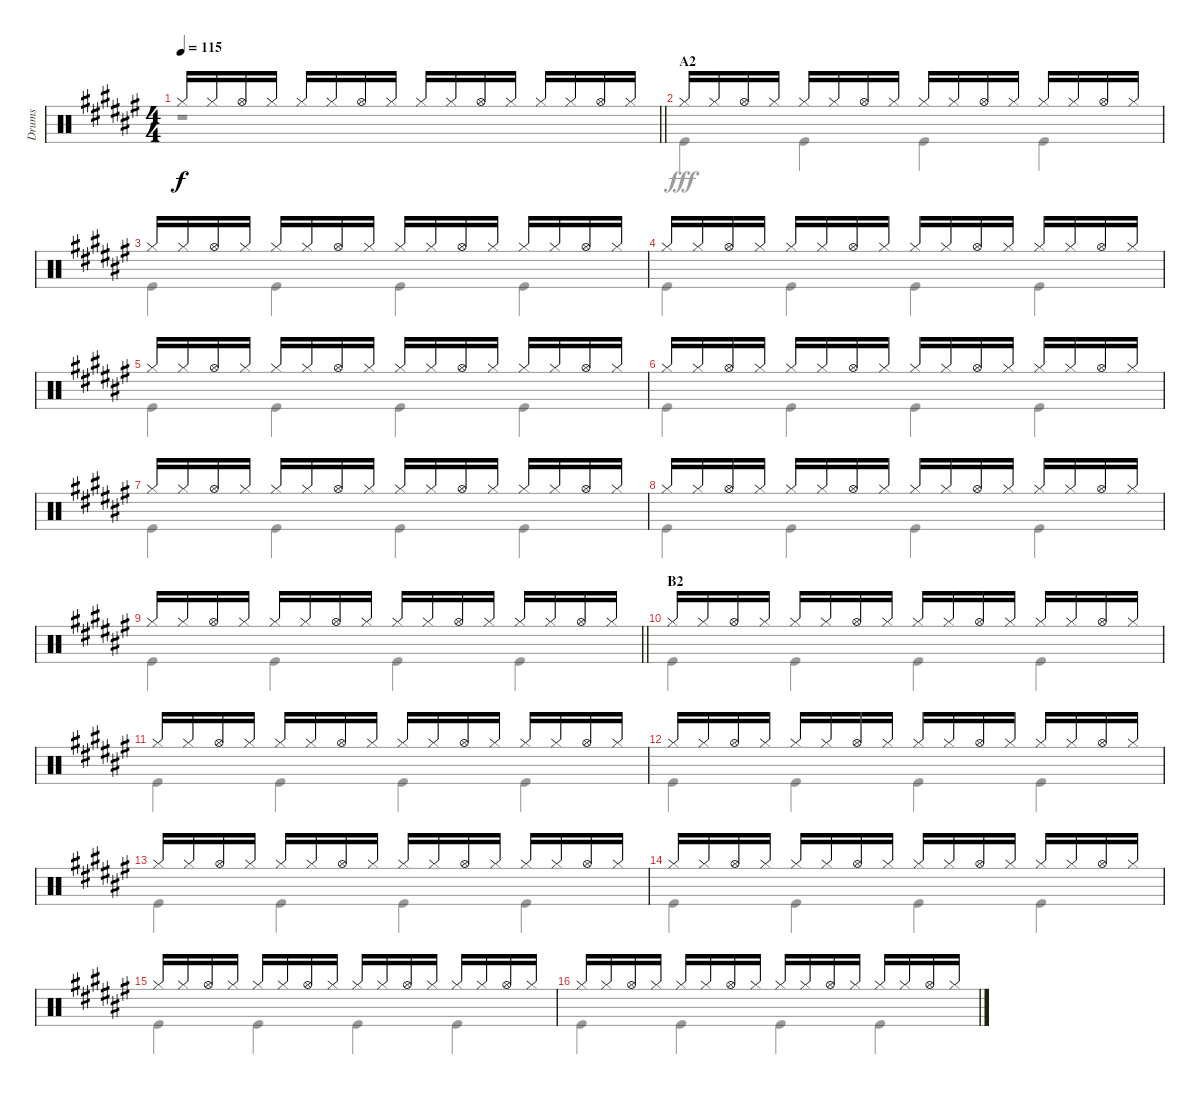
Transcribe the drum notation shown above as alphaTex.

\track ("Drums" "Drums") {instrument percussion}
\staff {score}
\articulation defaults
\voice
\ts (4 4)
\tempo 115
\clef neutral
\barLineRight lightlight
\ks f# "Hi-Hat (closed)".16{dy f} "Hi-Hat (closed)".16 "Hi-Hat (open)".16 "Hi-Hat (closed)".16 "Hi-Hat (closed)".16 "Hi-Hat (closed)".16 "Hi-Hat (open)".16 "Hi-Hat (closed)".16 "Hi-Hat (closed)".16 "Hi-Hat (closed)".16 "Hi-Hat (open)".16 "Hi-Hat (closed)".16 "Hi-Hat (closed)".16 "Hi-Hat (closed)".16 "Hi-Hat (open)".16 "Hi-Hat (closed)".16
|
\section ("" "A2")
"Hi-Hat (closed)".16 "Hi-Hat (closed)".16 "Hi-Hat (open)".16 "Hi-Hat (closed)".16 "Hi-Hat (closed)".16 "Hi-Hat (closed)".16 "Hi-Hat (open)".16 "Hi-Hat (closed)".16 "Hi-Hat (closed)".16 "Hi-Hat (closed)".16 "Hi-Hat (open)".16 "Hi-Hat (closed)".16 "Hi-Hat (closed)".16 "Hi-Hat (closed)".16 "Hi-Hat (open)".16 "Hi-Hat (closed)".16 |
"Hi-Hat (closed)".16 "Hi-Hat (closed)".16 "Hi-Hat (open)".16 "Hi-Hat (closed)".16 "Hi-Hat (closed)".16 "Hi-Hat (closed)".16 "Hi-Hat (open)".16 "Hi-Hat (closed)".16 "Hi-Hat (closed)".16 "Hi-Hat (closed)".16 "Hi-Hat (open)".16 "Hi-Hat (closed)".16 "Hi-Hat (closed)".16 "Hi-Hat (closed)".16 "Hi-Hat (open)".16 "Hi-Hat (closed)".16 |
"Hi-Hat (closed)".16 "Hi-Hat (closed)".16 "Hi-Hat (open)".16 "Hi-Hat (closed)".16 "Hi-Hat (closed)".16 "Hi-Hat (closed)".16 "Hi-Hat (open)".16 "Hi-Hat (closed)".16 "Hi-Hat (closed)".16 "Hi-Hat (closed)".16 "Hi-Hat (open)".16 "Hi-Hat (closed)".16 "Hi-Hat (closed)".16 "Hi-Hat (closed)".16 "Hi-Hat (open)".16 "Hi-Hat (closed)".16 |
"Hi-Hat (closed)".16 "Hi-Hat (closed)".16 "Hi-Hat (open)".16 "Hi-Hat (closed)".16 "Hi-Hat (closed)".16 "Hi-Hat (closed)".16 "Hi-Hat (open)".16 "Hi-Hat (closed)".16 "Hi-Hat (closed)".16 "Hi-Hat (closed)".16 "Hi-Hat (open)".16 "Hi-Hat (closed)".16 "Hi-Hat (closed)".16 "Hi-Hat (closed)".16 "Hi-Hat (open)".16 "Hi-Hat (closed)".16 |
"Hi-Hat (closed)".16 "Hi-Hat (closed)".16 "Hi-Hat (open)".16 "Hi-Hat (closed)".16 "Hi-Hat (closed)".16 "Hi-Hat (closed)".16 "Hi-Hat (open)".16 "Hi-Hat (closed)".16 "Hi-Hat (closed)".16 "Hi-Hat (closed)".16 "Hi-Hat (open)".16 "Hi-Hat (closed)".16 "Hi-Hat (closed)".16 "Hi-Hat (closed)".16 "Hi-Hat (open)".16 "Hi-Hat (closed)".16 |
"Hi-Hat (closed)".16 "Hi-Hat (closed)".16 "Hi-Hat (open)".16 "Hi-Hat (closed)".16 "Hi-Hat (closed)".16 "Hi-Hat (closed)".16 "Hi-Hat (open)".16 "Hi-Hat (closed)".16 "Hi-Hat (closed)".16 "Hi-Hat (closed)".16 "Hi-Hat (open)".16 "Hi-Hat (closed)".16 "Hi-Hat (closed)".16 "Hi-Hat (closed)".16 "Hi-Hat (open)".16 "Hi-Hat (closed)".16 |
"Hi-Hat (closed)".16 "Hi-Hat (closed)".16 "Hi-Hat (open)".16 "Hi-Hat (closed)".16 "Hi-Hat (closed)".16 "Hi-Hat (closed)".16 "Hi-Hat (open)".16 "Hi-Hat (closed)".16 "Hi-Hat (closed)".16 "Hi-Hat (closed)".16 "Hi-Hat (open)".16 "Hi-Hat (closed)".16 "Hi-Hat (closed)".16 "Hi-Hat (closed)".16 "Hi-Hat (open)".16 "Hi-Hat (closed)".16 |
\barLineRight lightlight "Hi-Hat (closed)".16 "Hi-Hat (closed)".16 "Hi-Hat (open)".16 "Hi-Hat (closed)".16 "Hi-Hat (closed)".16 "Hi-Hat (closed)".16 "Hi-Hat (open)".16 "Hi-Hat (closed)".16 "Hi-Hat (closed)".16 "Hi-Hat (closed)".16 "Hi-Hat (open)".16 "Hi-Hat (closed)".16 "Hi-Hat (closed)".16 "Hi-Hat (closed)".16 "Hi-Hat (open)".16 "Hi-Hat (closed)".16
|
\section ("" "B2")
"Hi-Hat (closed)".16 "Hi-Hat (closed)".16 "Hi-Hat (open)".16 "Hi-Hat (closed)".16 "Hi-Hat (closed)".16 "Hi-Hat (closed)".16 "Hi-Hat (open)".16 "Hi-Hat (closed)".16 "Hi-Hat (closed)".16 "Hi-Hat (closed)".16 "Hi-Hat (open)".16 "Hi-Hat (closed)".16 "Hi-Hat (closed)".16 "Hi-Hat (closed)".16 "Hi-Hat (open)".16 "Hi-Hat (closed)".16 |
"Hi-Hat (closed)".16 "Hi-Hat (closed)".16 "Hi-Hat (open)".16 "Hi-Hat (closed)".16 "Hi-Hat (closed)".16 "Hi-Hat (closed)".16 "Hi-Hat (open)".16 "Hi-Hat (closed)".16 "Hi-Hat (closed)".16 "Hi-Hat (closed)".16 "Hi-Hat (open)".16 "Hi-Hat (closed)".16 "Hi-Hat (closed)".16 "Hi-Hat (closed)".16 "Hi-Hat (open)".16 "Hi-Hat (closed)".16 |
"Hi-Hat (closed)".16 "Hi-Hat (closed)".16 "Hi-Hat (open)".16 "Hi-Hat (closed)".16 "Hi-Hat (closed)".16 "Hi-Hat (closed)".16 "Hi-Hat (open)".16 "Hi-Hat (closed)".16 "Hi-Hat (closed)".16 "Hi-Hat (closed)".16 "Hi-Hat (open)".16 "Hi-Hat (closed)".16 "Hi-Hat (closed)".16 "Hi-Hat (closed)".16 "Hi-Hat (open)".16 "Hi-Hat (closed)".16 |
"Hi-Hat (closed)".16 "Hi-Hat (closed)".16 "Hi-Hat (open)".16 "Hi-Hat (closed)".16 "Hi-Hat (closed)".16 "Hi-Hat (closed)".16 "Hi-Hat (open)".16 "Hi-Hat (closed)".16 "Hi-Hat (closed)".16 "Hi-Hat (closed)".16 "Hi-Hat (open)".16 "Hi-Hat (closed)".16 "Hi-Hat (closed)".16 "Hi-Hat (closed)".16 "Hi-Hat (open)".16 "Hi-Hat (closed)".16 |
"Hi-Hat (closed)".16 "Hi-Hat (closed)".16 "Hi-Hat (open)".16 "Hi-Hat (closed)".16 "Hi-Hat (closed)".16 "Hi-Hat (closed)".16 "Hi-Hat (open)".16 "Hi-Hat (closed)".16 "Hi-Hat (closed)".16 "Hi-Hat (closed)".16 "Hi-Hat (open)".16 "Hi-Hat (closed)".16 "Hi-Hat (closed)".16 "Hi-Hat (closed)".16 "Hi-Hat (open)".16 "Hi-Hat (closed)".16 |
"Hi-Hat (closed)".16 "Hi-Hat (closed)".16 "Hi-Hat (open)".16 "Hi-Hat (closed)".16 "Hi-Hat (closed)".16 "Hi-Hat (closed)".16 "Hi-Hat (open)".16 "Hi-Hat (closed)".16 "Hi-Hat (closed)".16 "Hi-Hat (closed)".16 "Hi-Hat (open)".16 "Hi-Hat (closed)".16 "Hi-Hat (closed)".16 "Hi-Hat (closed)".16 "Hi-Hat (open)".16 "Hi-Hat (closed)".16 |
"Hi-Hat (closed)".16 "Hi-Hat (closed)".16 "Hi-Hat (open)".16 "Hi-Hat (closed)".16 "Hi-Hat (closed)".16 "Hi-Hat (closed)".16 "Hi-Hat (open)".16 "Hi-Hat (closed)".16 "Hi-Hat (closed)".16 "Hi-Hat (closed)".16 "Hi-Hat (open)".16 "Hi-Hat (closed)".16 "Hi-Hat (closed)".16 "Hi-Hat (closed)".16 "Hi-Hat (open)".16 "Hi-Hat (closed)".16
\voice
\clef neutral
\ottava regular
\simile none
\barLineRight lightlight
\ks f#
r.1{dy fff} |
"Kick (hit)".4 "Kick (hit)".4 "Kick (hit)".4 "Kick (hit)".4 |
"Kick (hit)".4 "Kick (hit)".4 "Kick (hit)".4 "Kick (hit)".4 |
"Kick (hit)".4 "Kick (hit)".4 "Kick (hit)".4 "Kick (hit)".4 |
"Kick (hit)".4 "Kick (hit)".4 "Kick (hit)".4 "Kick (hit)".4 |
"Kick (hit)".4 "Kick (hit)".4 "Kick (hit)".4 "Kick (hit)".4 |
"Kick (hit)".4 "Kick (hit)".4 "Kick (hit)".4 "Kick (hit)".4 |
"Kick (hit)".4 "Kick (hit)".4 "Kick (hit)".4 "Kick (hit)".4 |
\barLineRight lightlight "Kick (hit)".4 "Kick (hit)".4 "Kick (hit)".4 "Kick (hit)".4
|
"Kick (hit)".4 "Kick (hit)".4 "Kick (hit)".4 "Kick (hit)".4 |
"Kick (hit)".4 "Kick (hit)".4 "Kick (hit)".4 "Kick (hit)".4 |
"Kick (hit)".4 "Kick (hit)".4 "Kick (hit)".4 "Kick (hit)".4 |
"Kick (hit)".4 "Kick (hit)".4 "Kick (hit)".4 "Kick (hit)".4 |
"Kick (hit)".4 "Kick (hit)".4 "Kick (hit)".4 "Kick (hit)".4 |
"Kick (hit)".4 "Kick (hit)".4 "Kick (hit)".4 "Kick (hit)".4 |
"Kick (hit)".4 "Kick (hit)".4 "Kick (hit)".4 "Kick (hit)".4
